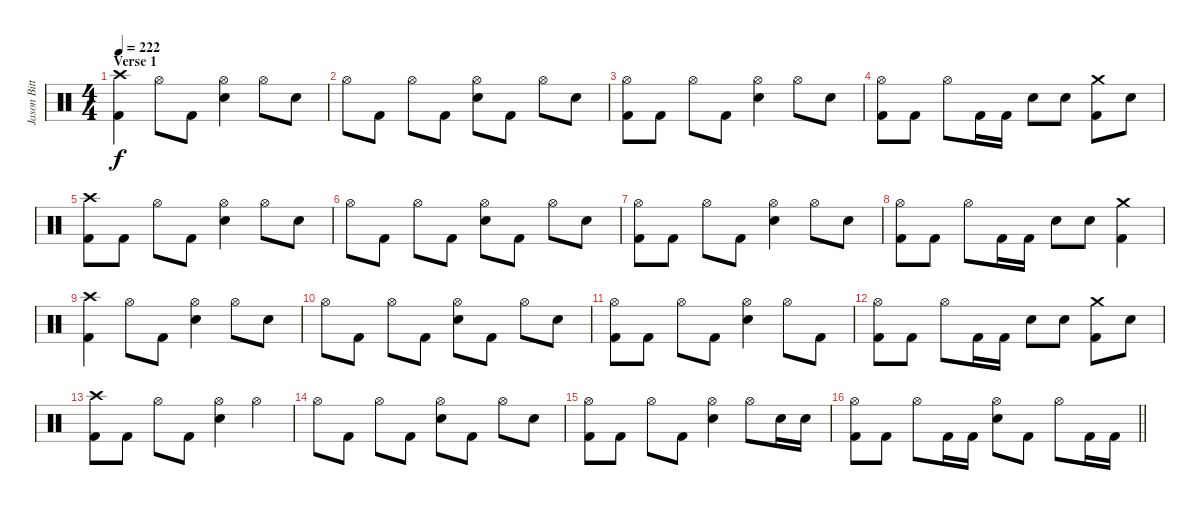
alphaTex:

\track ("Jason Bittner" "Jason Bitt") {instrument percussion}
\staff {score}
\articulation defaults
\ts (4 4)
\section ("" "Verse 1")
\tempo 222
\clef neutral
\ks c
("Crash high (hit)" "Kick (hit) 2").4{dy f} "Hi-Hat (open)".8 "Kick (hit) 2".8 ("Hi-Hat (open)" "Electric Snare (hit)").4 "Hi-Hat (open)".8 "Electric Snare (hit)".8 |
"Hi-Hat (open)".8 "Kick (hit) 2".8 "Hi-Hat (open)".8 "Kick (hit) 2".8 ("Hi-Hat (open)" "Electric Snare (hit)").8 "Kick (hit) 2".8 "Hi-Hat (open)".8 "Electric Snare (hit)".8 |
("Hi-Hat (open)" "Kick (hit) 2").8 "Kick (hit) 2".8 "Hi-Hat (open)".8 "Kick (hit) 2".8 ("Hi-Hat (open)" "Electric Snare (hit)").4 "Hi-Hat (open)".8 "Electric Snare (hit)".8 |
("Hi-Hat (open)" "Kick (hit) 2").8 "Kick (hit) 2".8 "Hi-Hat (open)".8 "Kick (hit) 2".16 "Kick (hit) 2".16 "Electric Snare (hit)".8 "Electric Snare (hit)".8 ("Crash medium (hit)" "Kick (hit) 2").8 "Electric Snare (hit)".8 |
("Crash high (hit)" "Kick (hit) 2").8 "Kick (hit) 2".8 "Hi-Hat (open)".8 "Kick (hit) 2".8 ("Hi-Hat (open)" "Electric Snare (hit)").4 "Hi-Hat (open)".8 "Electric Snare (hit)".8 |
"Hi-Hat (open)".8 "Kick (hit) 2".8 "Hi-Hat (open)".8 "Kick (hit) 2".8 ("Hi-Hat (open)" "Electric Snare (hit)").8 "Kick (hit) 2".8 "Hi-Hat (open)".8 "Electric Snare (hit)".8 |
("Hi-Hat (open)" "Kick (hit) 2").8 "Kick (hit) 2".8 "Hi-Hat (open)".8 "Kick (hit) 2".8 ("Hi-Hat (open)" "Electric Snare (hit)").4 "Hi-Hat (open)".8 "Electric Snare (hit)".8 |
("Hi-Hat (open)" "Kick (hit) 2").8 "Kick (hit) 2".8 "Hi-Hat (open)".8 "Kick (hit) 2".16 "Kick (hit) 2".16 "Electric Snare (hit)".8 "Electric Snare (hit)".8 ("Crash medium (hit)" "Kick (hit) 2").4 |
("Crash high (hit)" "Kick (hit) 2").4 "Hi-Hat (open)".8 "Kick (hit) 2".8 ("Hi-Hat (open)" "Electric Snare (hit)").4 "Hi-Hat (open)".8 "Electric Snare (hit)".8 |
"Hi-Hat (open)".8 "Kick (hit) 2".8 "Hi-Hat (open)".8 "Kick (hit) 2".8 ("Hi-Hat (open)" "Electric Snare (hit)").8 "Kick (hit) 2".8 "Hi-Hat (open)".8 "Electric Snare (hit)".8 |
("Hi-Hat (open)" "Kick (hit) 2").8 "Kick (hit) 2".8 "Hi-Hat (open)".8 "Kick (hit) 2".8 ("Hi-Hat (open)" "Electric Snare (hit)").4 "Hi-Hat (open)".8 "Kick (hit) 2".8 |
("Hi-Hat (open)" "Kick (hit) 2").8 "Kick (hit) 2".8 "Hi-Hat (open)".8 "Kick (hit) 2".16 "Kick (hit) 2".16 "Electric Snare (hit)".8 "Electric Snare (hit)".8 ("Crash medium (hit)" "Kick (hit) 2").8 "Electric Snare (hit)".8 |
("Crash high (hit)" "Kick (hit) 2").8 "Kick (hit) 2".8 "Hi-Hat (open)".8 "Kick (hit) 2".8 ("Hi-Hat (open)" "Electric Snare (hit)").4 "Hi-Hat (open)".4 |
"Hi-Hat (open)".8 "Kick (hit) 2".8 "Hi-Hat (open)".8 "Kick (hit) 2".8 ("Hi-Hat (open)" "Electric Snare (hit)").8 "Kick (hit) 2".8 "Hi-Hat (open)".8 "Electric Snare (hit)".8 |
("Hi-Hat (open)" "Kick (hit) 2").8 "Kick (hit) 2".8 "Hi-Hat (open)".8 "Kick (hit) 2".8 ("Hi-Hat (open)" "Electric Snare (hit)").4 "Hi-Hat (open)".8 "Electric Snare (hit)".16 "Electric Snare (hit)".16 |
\barLineRight lightlight
("Hi-Hat (open)" "Kick (hit) 2").8 "Kick (hit) 2".8 "Hi-Hat (open)".8 "Kick (hit) 2".16 "Kick (hit) 2".16 ("Hi-Hat (open)" "Electric Snare (hit)").8 "Kick (hit) 2".8 "Hi-Hat (open)".8 "Kick (hit) 2".16 "Kick (hit) 2".16
